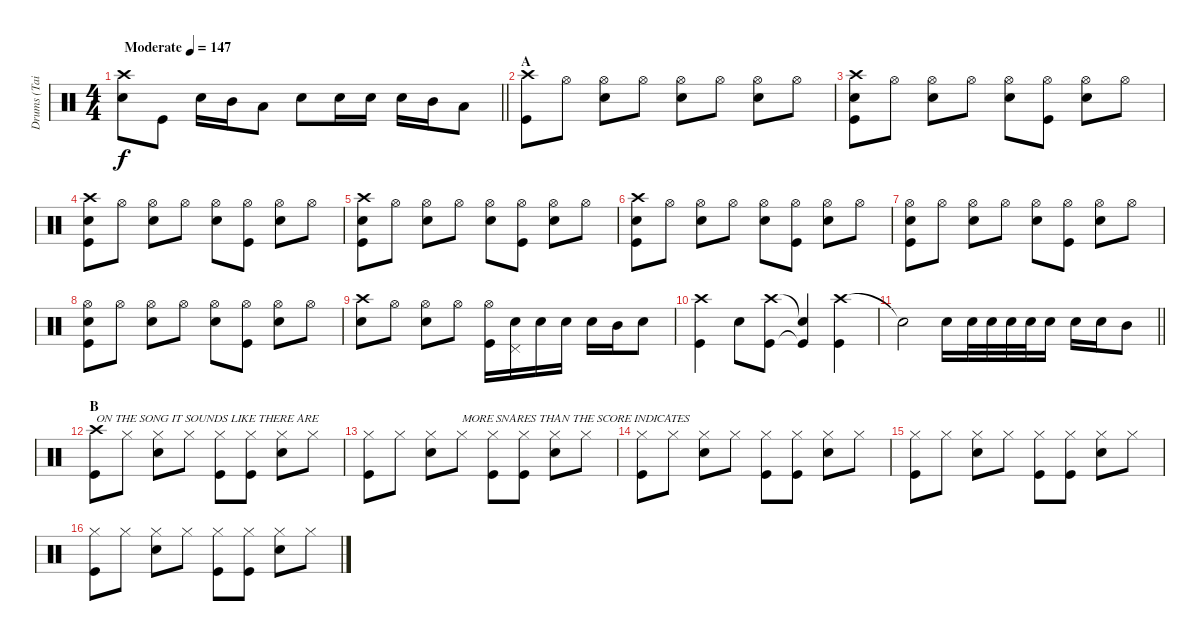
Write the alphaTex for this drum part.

\track ("Drums (Tainaka Ritsu)" "Drums (Tai") {instrument percussion}
\staff {score}
\articulation defaults
\ts (4 4)
\tempo (147 "Moderate")
\clef neutral
\barLineRight lightlight
\ks c
("Crash high (hit)" "Snare (hit) 2").8{dy f} "Kick (hit)".8 "Snare (hit) 2".16 "Mid Tom (hit)".16 "Low Tom (hit)".8 "Snare (hit) 2".8 "Snare (hit) 2".16 "Snare (hit) 2".16 "Snare (hit) 2".16 "Mid Tom (hit)".16 "Low Tom (hit)".8 |
\section ("" "A")
("Crash high (hit)" "Kick (hit)").8 "Hi-Hat (open)".8 ("Hi-Hat (open)" "Snare (hit) 2").8 "Hi-Hat (open)".8 ("Hi-Hat (open)" "Snare (hit) 2").8 "Hi-Hat (open)".8 ("Hi-Hat (open)" "Snare (hit) 2").8 "Hi-Hat (open)".8 |
("Crash high (hit)" "Snare (hit) 2" "Kick (hit)").8 "Hi-Hat (open)".8 ("Hi-Hat (open)" "Snare (hit) 2").8 "Hi-Hat (open)".8 ("Hi-Hat (open)" "Snare (hit) 2").8 ("Hi-Hat (open)" "Kick (hit)").8 ("Hi-Hat (open)" "Snare (hit) 2").8 "Hi-Hat (open)".8 |
("Crash high (hit)" "Snare (hit) 2" "Kick (hit)").8 "Hi-Hat (open)".8 ("Hi-Hat (open)" "Snare (hit) 2").8 "Hi-Hat (open)".8 ("Hi-Hat (open)" "Snare (hit) 2").8 ("Hi-Hat (open)" "Kick (hit)").8 ("Hi-Hat (open)" "Snare (hit) 2").8 "Hi-Hat (open)".8 |
("Crash high (hit)" "Snare (hit) 2" "Kick (hit)").8 "Hi-Hat (open)".8 ("Hi-Hat (open)" "Snare (hit) 2").8 "Hi-Hat (open)".8 ("Hi-Hat (open)" "Snare (hit) 2").8 ("Hi-Hat (open)" "Kick (hit)").8 ("Hi-Hat (open)" "Snare (hit) 2").8 "Hi-Hat (open)".8 |
("Crash high (hit)" "Snare (hit) 2" "Kick (hit)").8 "Hi-Hat (open)".8 ("Hi-Hat (open)" "Snare (hit) 2").8 "Hi-Hat (open)".8 ("Hi-Hat (open)" "Snare (hit) 2").8 ("Hi-Hat (open)" "Kick (hit)").8 ("Hi-Hat (open)" "Snare (hit) 2").8 "Hi-Hat (open)".8 |
("Hi-Hat (open)" "Snare (hit) 2" "Kick (hit)").8 "Hi-Hat (open)".8 ("Hi-Hat (open)" "Snare (hit) 2").8 "Hi-Hat (open)".8 ("Hi-Hat (open)" "Snare (hit) 2").8 ("Hi-Hat (open)" "Kick (hit)").8 ("Hi-Hat (open)" "Snare (hit) 2").8 "Hi-Hat (open)".8 |
("Hi-Hat (open)" "Snare (hit) 2" "Kick (hit)").8 "Hi-Hat (open)".8 ("Hi-Hat (open)" "Snare (hit) 2").8 "Hi-Hat (open)".8 ("Hi-Hat (open)" "Snare (hit) 2").8 ("Hi-Hat (open)" "Kick (hit)").8 ("Hi-Hat (open)" "Snare (hit) 2").8 "Hi-Hat (open)".8 |
("Crash high (hit)" "Snare (hit) 2").8 "Hi-Hat (open)".8 ("Hi-Hat (open)" "Snare (hit) 2").8 "Hi-Hat (open)".8 ("Hi-Hat (open)" "Kick (hit)").16 ("Snare (hit) 2" "Pedal Hi-Hat (hit)").16 "Snare (hit) 2".16 "Snare (hit) 2".16 "Snare (hit) 2".16 "Mid Tom (hit)".16 "Snare (hit) 2".8 |
("Crash high (hit)" "Kick (hit)").4 "Snare (hit) 2".8 ("Crash high (hit)" "Kick (hit)").8 ("Snare (hit)"{t} "Kick (hit)"{t}).4 ("Crash high (hit)" "Kick (hit)").4 |
\barLineRight lightlight "Snare (hit)"{t}.2 "Snare (hit) 2".16 "Snare (hit) 2".32 "Snare (hit) 2".32 "Snare (hit) 2".32 "Snare (hit) 2".32 "Snare (hit) 2".16 "Snare (hit) 2".16 "Snare (hit) 2".16 "Mid Tom (hit)".8
|
\section ("" "B")
("Crash high (hit)" "Kick (hit)").8{txt "ON THE SONG IT SOUNDS LIKE THERE ARE"} "Hi-Hat (closed)".8 ("Hi-Hat (closed)" "Snare (hit) 2").8 "Hi-Hat (closed)".8 ("Hi-Hat (closed)" "Kick (hit)").8 ("Hi-Hat (closed)" "Kick (hit)").8 ("Hi-Hat (closed)" "Snare (hit) 2").8 "Hi-Hat (closed)".8 |
("Hi-Hat (closed)" "Kick (hit)").8 "Hi-Hat (closed)".8 ("Hi-Hat (closed)" "Snare (hit) 2").8 "Hi-Hat (closed)".8{txt "MORE SNARES THAN THE SCORE INDICATES"} ("Hi-Hat (closed)" "Kick (hit)").8 ("Hi-Hat (closed)" "Kick (hit)").8 ("Hi-Hat (closed)" "Snare (hit) 2").8 "Hi-Hat (closed)".8 |
("Hi-Hat (closed)" "Kick (hit)").8 "Hi-Hat (closed)".8 ("Hi-Hat (closed)" "Snare (hit) 2").8 "Hi-Hat (closed)".8 ("Hi-Hat (closed)" "Kick (hit)").8 ("Hi-Hat (closed)" "Kick (hit)").8 ("Hi-Hat (closed)" "Snare (hit) 2").8 "Hi-Hat (closed)".8 |
("Hi-Hat (closed)" "Kick (hit)").8 "Hi-Hat (closed)".8 ("Hi-Hat (closed)" "Snare (hit) 2").8 "Hi-Hat (closed)".8 ("Hi-Hat (closed)" "Kick (hit)").8 ("Hi-Hat (closed)" "Kick (hit)").8 ("Hi-Hat (closed)" "Snare (hit) 2").8 "Hi-Hat (closed)".8 |
("Hi-Hat (closed)" "Kick (hit)").8 "Hi-Hat (closed)".8 ("Hi-Hat (closed)" "Snare (hit) 2").8 "Hi-Hat (closed)".8 ("Hi-Hat (closed)" "Kick (hit)").8 ("Hi-Hat (closed)" "Kick (hit)").8 ("Hi-Hat (closed)" "Snare (hit) 2").8 "Hi-Hat (closed)".8
